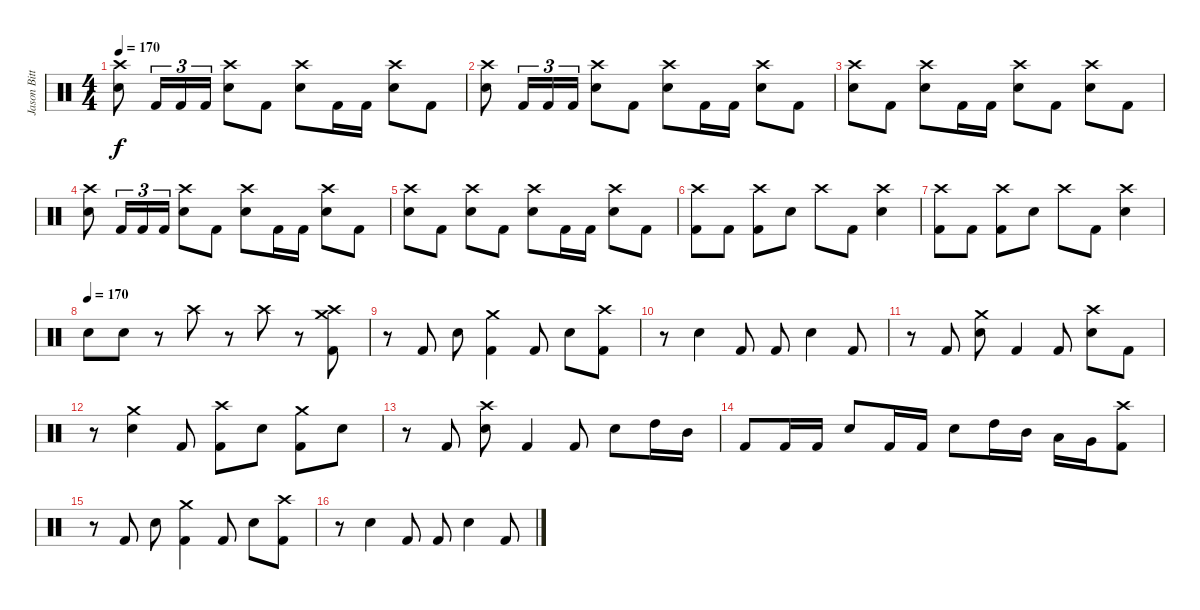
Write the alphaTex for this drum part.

\track ("Jason Bittner" "Jason Bitt") {instrument percussion}
\staff {score}
\articulation defaults
\ts (4 4)
\tempo 170
\clef neutral
\ks c
("Crash high (hit)" "Electric Snare (hit)").8{dy f} "Kick (hit) 2".16{tu (3 2)} "Kick (hit) 2".16{tu (3 2)} "Kick (hit) 2".16{tu (3 2)} ("Crash high (hit)" "Electric Snare (hit)").8 "Kick (hit) 2".8 ("Crash high (hit)" "Electric Snare (hit)").8 "Kick (hit) 2".16 "Kick (hit) 2".16 ("Crash high (hit)" "Electric Snare (hit)").8 "Kick (hit) 2".8 |
("Crash high (hit)" "Electric Snare (hit)").8 "Kick (hit) 2".16{tu (3 2)} "Kick (hit) 2".16{tu (3 2)} "Kick (hit) 2".16{tu (3 2)} ("Crash high (hit)" "Electric Snare (hit)").8 "Kick (hit) 2".8 ("Crash high (hit)" "Electric Snare (hit)").8 "Kick (hit) 2".16 "Kick (hit) 2".16 ("Crash high (hit)" "Electric Snare (hit)").8 "Kick (hit) 2".8 |
("Crash high (hit)" "Electric Snare (hit)").8 "Kick (hit) 2".8 ("Crash high (hit)" "Electric Snare (hit)").8 "Kick (hit) 2".16 "Kick (hit) 2".16 ("Crash high (hit)" "Electric Snare (hit)").8 "Kick (hit) 2".8 ("Crash high (hit)" "Electric Snare (hit)").8 "Kick (hit) 2".8 |
("Crash high (hit)" "Electric Snare (hit)").8 "Kick (hit) 2".16{tu (3 2)} "Kick (hit) 2".16{tu (3 2)} "Kick (hit) 2".16{tu (3 2)} ("Crash high (hit)" "Electric Snare (hit)").8 "Kick (hit) 2".8 ("Crash high (hit)" "Electric Snare (hit)").8 "Kick (hit) 2".16 "Kick (hit) 2".16 ("Crash high (hit)" "Electric Snare (hit)").8 "Kick (hit) 2".8 |
("Crash high (hit)" "Electric Snare (hit)").8 "Kick (hit) 2".8 ("Crash high (hit)" "Electric Snare (hit)").8 "Kick (hit) 2".8 ("Crash high (hit)" "Electric Snare (hit)").8 "Kick (hit) 2".16 "Kick (hit) 2".16 ("Crash high (hit)" "Electric Snare (hit)").8 "Kick (hit) 2".8 |
("Crash high (hit)" "Kick (hit) 2").8 "Kick (hit) 2".8 ("Crash high (hit)" "Kick (hit) 2").8 "Electric Snare (hit)".8 "Crash high (hit)".8 "Kick (hit) 2".8 ("Crash high (hit)" "Electric Snare (hit)").4 |
("Crash high (hit)" "Kick (hit) 2").8 "Kick (hit) 2".8 ("Crash high (hit)" "Kick (hit) 2").8 "Electric Snare (hit)".8 "Crash high (hit)".8 "Kick (hit) 2".8 ("Crash high (hit)" "Electric Snare (hit)").4 |
\tempo (170)
"Electric Snare (hit)".8 "Electric Snare (hit)".8 r.8 "Crash high (hit)".8 r.8 "Crash high (hit)".8 r.8 ("Crash high (hit)" "Crash medium (hit)" "Kick (hit) 2").8 |
r.8 "Kick (hit) 2".8 "Electric Snare (hit)".8 ("Crash medium (hit)" "Kick (hit) 2").4 "Kick (hit) 2".8 "Electric Snare (hit)".8 ("Crash high (hit)" "Kick (hit) 2").8 |
r.8 "Electric Snare (hit)".4 "Kick (hit) 2".8 "Kick (hit) 2".8 "Electric Snare (hit)".4 "Kick (hit) 2".8 |
r.8 "Kick (hit) 2".8 ("Crash medium (hit)" "Electric Snare (hit)").8 "Kick (hit) 2".4 "Kick (hit) 2".8 ("Crash high (hit)" "Electric Snare (hit)").8 "Kick (hit) 2".8 |
r.8 ("Crash medium (hit)" "Electric Snare (hit)").4 "Kick (hit) 2".8 ("Crash high (hit)" "Kick (hit) 2").8 "Electric Snare (hit)".8 ("Crash medium (hit)" "Kick (hit) 2").8 "Electric Snare (hit)".8 |
r.8 "Kick (hit) 2".8 ("Crash high (hit)" "Electric Snare (hit)").8 "Kick (hit) 2".4 "Kick (hit) 2".8 "Electric Snare (hit)".8 "High Tom (hit)".16 "Mid Tom (hit)".16 |
"Kick (hit) 2".8 "Kick (hit) 2".16 "Kick (hit) 2".16 "Electric Snare (hit)".8 "Kick (hit) 2".16 "Kick (hit) 2".16 "Electric Snare (hit)".8 "High Tom (hit)".16 "Mid Tom (hit)".16 "Low Tom (hit)".16 "Very Low Tom (hit)".16 ("Crash high (hit)" "Kick (hit) 2").8 |
r.8 "Kick (hit) 2".8 "Electric Snare (hit)".8 ("Crash medium (hit)" "Kick (hit) 2").4 "Kick (hit) 2".8 "Electric Snare (hit)".8 ("Crash high (hit)" "Kick (hit) 2").8 |
r.8 "Electric Snare (hit)".4 "Kick (hit) 2".8 "Kick (hit) 2".8 "Electric Snare (hit)".4 "Kick (hit) 2".8
